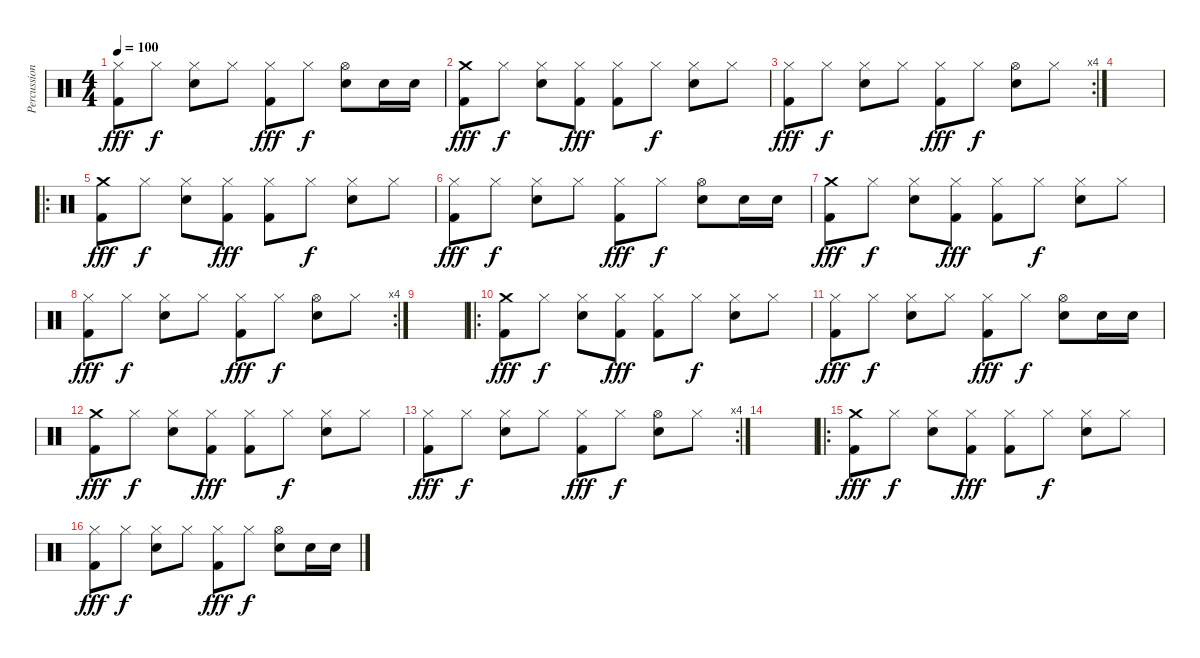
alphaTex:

\track ("Percussion" "Percussion") {instrument percussion}
\staff {score}
\articulation defaults
\ts (4 4)
\tempo 100
\clef neutral
\ks c
("Hi-Hat (closed)" "Kick (hit) 2").8{dy fff} "Hi-Hat (closed)".8{dy f} ("Hi-Hat (closed)" "Electric Snare (hit)").8 "Hi-Hat (closed)".8 ("Hi-Hat (closed)" "Kick (hit) 2").8{dy fff} "Hi-Hat (closed)".8{dy f} ("Hi-Hat (open)" "Electric Snare (hit)").8 "Electric Snare (hit)".16 "Electric Snare (hit)".16 |
("Crash medium (hit)" "Kick (hit) 2").8{dy fff} "Hi-Hat (closed)".8{dy f} ("Hi-Hat (closed)" "Electric Snare (hit)").8 ("Hi-Hat (closed)" "Kick (hit) 2").8{dy fff} ("Hi-Hat (closed)" "Kick (hit) 2").8 "Hi-Hat (closed)".8{dy f} ("Hi-Hat (closed)" "Electric Snare (hit)").8 "Hi-Hat (closed)".8 |
\rc 4
("Hi-Hat (closed)" "Kick (hit) 2").8{dy fff} "Hi-Hat (closed)".8{dy f} ("Hi-Hat (closed)" "Electric Snare (hit)").8 "Hi-Hat (closed)".8 ("Hi-Hat (closed)" "Kick (hit) 2").8{dy fff} "Hi-Hat (closed)".8{dy f} ("Hi-Hat (open)" "Electric Snare (hit)").8 "Hi-Hat (closed)".8 |
|
\ro
("Crash medium (hit)" "Kick (hit) 2").8{dy fff} "Hi-Hat (closed)".8{dy f} ("Hi-Hat (closed)" "Electric Snare (hit)").8 ("Hi-Hat (closed)" "Kick (hit) 2").8{dy fff} ("Hi-Hat (closed)" "Kick (hit) 2").8 "Hi-Hat (closed)".8{dy f} ("Hi-Hat (closed)" "Electric Snare (hit)").8 "Hi-Hat (closed)".8 |
("Hi-Hat (closed)" "Kick (hit) 2").8{dy fff} "Hi-Hat (closed)".8{dy f} ("Hi-Hat (closed)" "Electric Snare (hit)").8 "Hi-Hat (closed)".8 ("Hi-Hat (closed)" "Kick (hit) 2").8{dy fff} "Hi-Hat (closed)".8{dy f} ("Hi-Hat (open)" "Electric Snare (hit)").8 "Electric Snare (hit)".16 "Electric Snare (hit)".16 |
("Crash medium (hit)" "Kick (hit) 2").8{dy fff} "Hi-Hat (closed)".8{dy f} ("Hi-Hat (closed)" "Electric Snare (hit)").8 ("Hi-Hat (closed)" "Kick (hit) 2").8{dy fff} ("Hi-Hat (closed)" "Kick (hit) 2").8 "Hi-Hat (closed)".8{dy f} ("Hi-Hat (closed)" "Electric Snare (hit)").8 "Hi-Hat (closed)".8 |
\rc 4
("Hi-Hat (closed)" "Kick (hit) 2").8{dy fff} "Hi-Hat (closed)".8{dy f} ("Hi-Hat (closed)" "Electric Snare (hit)").8 "Hi-Hat (closed)".8 ("Hi-Hat (closed)" "Kick (hit) 2").8{dy fff} "Hi-Hat (closed)".8{dy f} ("Hi-Hat (open)" "Electric Snare (hit)").8 "Hi-Hat (closed)".8 |
|
\ro
("Crash medium (hit)" "Kick (hit) 2").8{dy fff} "Hi-Hat (closed)".8{dy f} ("Hi-Hat (closed)" "Electric Snare (hit)").8 ("Hi-Hat (closed)" "Kick (hit) 2").8{dy fff} ("Hi-Hat (closed)" "Kick (hit) 2").8 "Hi-Hat (closed)".8{dy f} ("Hi-Hat (closed)" "Electric Snare (hit)").8 "Hi-Hat (closed)".8 |
("Hi-Hat (closed)" "Kick (hit) 2").8{dy fff} "Hi-Hat (closed)".8{dy f} ("Hi-Hat (closed)" "Electric Snare (hit)").8 "Hi-Hat (closed)".8 ("Hi-Hat (closed)" "Kick (hit) 2").8{dy fff} "Hi-Hat (closed)".8{dy f} ("Hi-Hat (open)" "Electric Snare (hit)").8 "Electric Snare (hit)".16 "Electric Snare (hit)".16 |
("Crash medium (hit)" "Kick (hit) 2").8{dy fff} "Hi-Hat (closed)".8{dy f} ("Hi-Hat (closed)" "Electric Snare (hit)").8 ("Hi-Hat (closed)" "Kick (hit) 2").8{dy fff} ("Hi-Hat (closed)" "Kick (hit) 2").8 "Hi-Hat (closed)".8{dy f} ("Hi-Hat (closed)" "Electric Snare (hit)").8 "Hi-Hat (closed)".8 |
\rc 4
("Hi-Hat (closed)" "Kick (hit) 2").8{dy fff} "Hi-Hat (closed)".8{dy f} ("Hi-Hat (closed)" "Electric Snare (hit)").8 "Hi-Hat (closed)".8 ("Hi-Hat (closed)" "Kick (hit) 2").8{dy fff} "Hi-Hat (closed)".8{dy f} ("Hi-Hat (open)" "Electric Snare (hit)").8 "Hi-Hat (closed)".8 |
|
\ro
("Crash medium (hit)" "Kick (hit) 2").8{dy fff} "Hi-Hat (closed)".8{dy f} ("Hi-Hat (closed)" "Electric Snare (hit)").8 ("Hi-Hat (closed)" "Kick (hit) 2").8{dy fff} ("Hi-Hat (closed)" "Kick (hit) 2").8 "Hi-Hat (closed)".8{dy f} ("Hi-Hat (closed)" "Electric Snare (hit)").8 "Hi-Hat (closed)".8 |
("Hi-Hat (closed)" "Kick (hit) 2").8{dy fff} "Hi-Hat (closed)".8{dy f} ("Hi-Hat (closed)" "Electric Snare (hit)").8 "Hi-Hat (closed)".8 ("Hi-Hat (closed)" "Kick (hit) 2").8{dy fff} "Hi-Hat (closed)".8{dy f} ("Hi-Hat (open)" "Electric Snare (hit)").8 "Electric Snare (hit)".16 "Electric Snare (hit)".16
